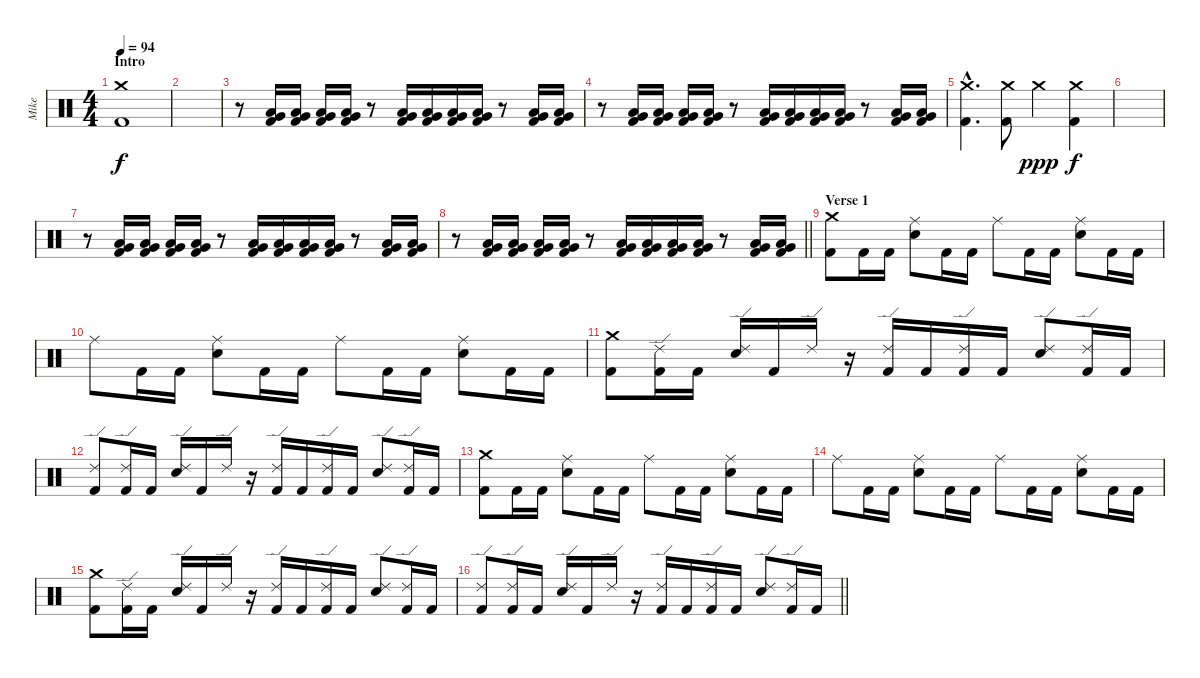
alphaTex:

\track ("Mike" "Mike") {instrument percussion}
\staff {score}
\articulation defaults
\ts (4 4)
\section ("" "Intro")
\tempo 94
\clef neutral
\ks c
("Crash medium (hit)" "Kick (hit) 2").1{dy f} |
|
r.8 ("Low Floor Tom (hit)" "Very Low Tom (hit)" "Kick (hit) 2").16 ("Low Floor Tom (hit)" "Very Low Tom (hit)" "Kick (hit) 2").16 ("Low Floor Tom (hit)" "Very Low Tom (hit)" "Kick (hit) 2").16 ("Low Floor Tom (hit)" "Very Low Tom (hit)" "Kick (hit) 2").16 r.8 ("Low Floor Tom (hit)" "Very Low Tom (hit)" "Kick (hit) 2").16 ("Low Floor Tom (hit)" "Very Low Tom (hit)" "Kick (hit) 2").16 ("Low Floor Tom (hit)" "Very Low Tom (hit)" "Kick (hit) 2").16 ("Low Floor Tom (hit)" "Very Low Tom (hit)" "Kick (hit) 2").16 r.8 ("Low Floor Tom (hit)" "Very Low Tom (hit)" "Kick (hit) 2").16 ("Low Floor Tom (hit)" "Very Low Tom (hit)" "Kick (hit) 2").16 |
r.8 ("Low Floor Tom (hit)" "Very Low Tom (hit)" "Kick (hit) 2").16 ("Low Floor Tom (hit)" "Very Low Tom (hit)" "Kick (hit) 2").16 ("Low Floor Tom (hit)" "Very Low Tom (hit)" "Kick (hit) 2").16 ("Low Floor Tom (hit)" "Very Low Tom (hit)" "Kick (hit) 2").16 r.8 ("Low Floor Tom (hit)" "Very Low Tom (hit)" "Kick (hit) 2").16 ("Low Floor Tom (hit)" "Very Low Tom (hit)" "Kick (hit) 2").16 ("Low Floor Tom (hit)" "Very Low Tom (hit)" "Kick (hit) 2").16 ("Low Floor Tom (hit)" "Very Low Tom (hit)" "Kick (hit) 2").16 r.8 ("Low Floor Tom (hit)" "Very Low Tom (hit)" "Kick (hit) 2").16 ("Low Floor Tom (hit)" "Very Low Tom (hit)" "Kick (hit) 2").16 |
("Crash medium (hit)"{hac} "Kick (hit) 2"{hac}).4{d} ("Crash medium (hit)" "Kick (hit) 2").8 "Crash medium (hit)".4{dy ppp} ("Crash medium (hit)" "Kick (hit) 2").4{dy f} |
|
r.8 ("Low Floor Tom (hit)" "Very Low Tom (hit)" "Kick (hit) 2").16 ("Low Floor Tom (hit)" "Very Low Tom (hit)" "Kick (hit) 2").16 ("Low Floor Tom (hit)" "Very Low Tom (hit)" "Kick (hit) 2").16 ("Low Floor Tom (hit)" "Very Low Tom (hit)" "Kick (hit) 2").16 r.8 ("Low Floor Tom (hit)" "Very Low Tom (hit)" "Kick (hit) 2").16 ("Low Floor Tom (hit)" "Very Low Tom (hit)" "Kick (hit) 2").16 ("Low Floor Tom (hit)" "Very Low Tom (hit)" "Kick (hit) 2").16 ("Low Floor Tom (hit)" "Very Low Tom (hit)" "Kick (hit) 2").16 r.8 ("Low Floor Tom (hit)" "Very Low Tom (hit)" "Kick (hit) 2").16 ("Low Floor Tom (hit)" "Very Low Tom (hit)" "Kick (hit) 2").16 |
\barLineRight lightlight
r.8 ("Low Floor Tom (hit)" "Very Low Tom (hit)" "Kick (hit) 2").16 ("Low Floor Tom (hit)" "Very Low Tom (hit)" "Kick (hit) 2").16 ("Low Floor Tom (hit)" "Very Low Tom (hit)" "Kick (hit) 2").16 ("Low Floor Tom (hit)" "Very Low Tom (hit)" "Kick (hit) 2").16 r.8 ("Low Floor Tom (hit)" "Very Low Tom (hit)" "Kick (hit) 2").16 ("Low Floor Tom (hit)" "Very Low Tom (hit)" "Kick (hit) 2").16 ("Low Floor Tom (hit)" "Very Low Tom (hit)" "Kick (hit) 2").16 ("Low Floor Tom (hit)" "Very Low Tom (hit)" "Kick (hit) 2").16 r.8 ("Low Floor Tom (hit)" "Very Low Tom (hit)" "Kick (hit) 2").16 ("Low Floor Tom (hit)" "Very Low Tom (hit)" "Kick (hit) 2").16 |
\section ("" "Verse 1")
("Crash medium (hit)" "Kick (hit) 2").8 "Kick (hit) 2".16 "Kick (hit) 2".16 ("Ride (middle)" "Snare (hit) 2").8 "Kick (hit) 2".16 "Kick (hit) 2".16 "Ride (middle)".8 "Kick (hit) 2".16 "Kick (hit) 2".16 ("Ride (middle)" "Snare (hit) 2").8 "Kick (hit) 2".16 "Kick (hit) 2".16 |
"Ride (middle)".8 "Kick (hit) 2".16 "Kick (hit) 2".16 ("Ride (middle)" "Snare (hit) 2").8 "Kick (hit) 2".16 "Kick (hit) 2".16 "Ride (middle)".8 "Kick (hit) 2".16 "Kick (hit) 2".16 ("Ride (middle)" "Snare (hit) 2").8 "Kick (hit) 2".16 "Kick (hit) 2".16 |
("Crash medium (hit)" "Kick (hit) 2").8 ("Ride (edge) 2" "Kick (hit) 2").16 "Kick (hit) 2".16 ("Ride (edge) 2" "Snare (hit) 2").16 "Kick (hit) 2".16 "Ride (edge) 2".16 r.16 ("Ride (edge) 2" "Kick (hit) 2").16 "Kick (hit) 2".16 ("Ride (edge) 2" "Kick (hit) 2").16 "Kick (hit) 2".16 ("Ride (edge) 2" "Snare (hit) 2").8 ("Ride (edge) 2" "Kick (hit) 2").16 "Kick (hit) 2".16 |
("Ride (edge) 2" "Kick (hit) 2").8 ("Ride (edge) 2" "Kick (hit) 2").16 "Kick (hit) 2".16 ("Ride (edge) 2" "Snare (hit) 2").16 "Kick (hit) 2".16 "Ride (edge) 2".16 r.16 ("Ride (edge) 2" "Kick (hit) 2").16 "Kick (hit) 2".16 ("Ride (edge) 2" "Kick (hit) 2").16 "Kick (hit) 2".16 ("Ride (edge) 2" "Snare (hit) 2").8 ("Ride (edge) 2" "Kick (hit) 2").16 "Kick (hit) 2".16 |
("Crash medium (hit)" "Kick (hit) 2").8 "Kick (hit) 2".16 "Kick (hit) 2".16 ("Ride (middle)" "Snare (hit) 2").8 "Kick (hit) 2".16 "Kick (hit) 2".16 "Ride (middle)".8 "Kick (hit) 2".16 "Kick (hit) 2".16 ("Ride (middle)" "Snare (hit) 2").8 "Kick (hit) 2".16 "Kick (hit) 2".16 |
"Ride (middle)".8 "Kick (hit) 2".16 "Kick (hit) 2".16 ("Ride (middle)" "Snare (hit) 2").8 "Kick (hit) 2".16 "Kick (hit) 2".16 "Ride (middle)".8 "Kick (hit) 2".16 "Kick (hit) 2".16 ("Ride (middle)" "Snare (hit) 2").8 "Kick (hit) 2".16 "Kick (hit) 2".16 |
("Crash medium (hit)" "Kick (hit) 2").8 ("Ride (edge) 2" "Kick (hit) 2").16 "Kick (hit) 2".16 ("Ride (edge) 2" "Snare (hit) 2").16 "Kick (hit) 2".16 "Ride (edge) 2".16 r.16 ("Ride (edge) 2" "Kick (hit) 2").16 "Kick (hit) 2".16 ("Ride (edge) 2" "Kick (hit) 2").16 "Kick (hit) 2".16 ("Ride (edge) 2" "Snare (hit) 2").8 ("Ride (edge) 2" "Kick (hit) 2").16 "Kick (hit) 2".16 |
\barLineRight lightlight
("Ride (edge) 2" "Kick (hit) 2").8 ("Ride (edge) 2" "Kick (hit) 2").16 "Kick (hit) 2".16 ("Ride (edge) 2" "Snare (hit) 2").16 "Kick (hit) 2".16 "Ride (edge) 2".16 r.16 ("Ride (edge) 2" "Kick (hit) 2").16 "Kick (hit) 2".16 ("Ride (edge) 2" "Kick (hit) 2").16 "Kick (hit) 2".16 ("Ride (edge) 2" "Snare (hit) 2").8 ("Ride (edge) 2" "Kick (hit) 2").16 "Kick (hit) 2".16
